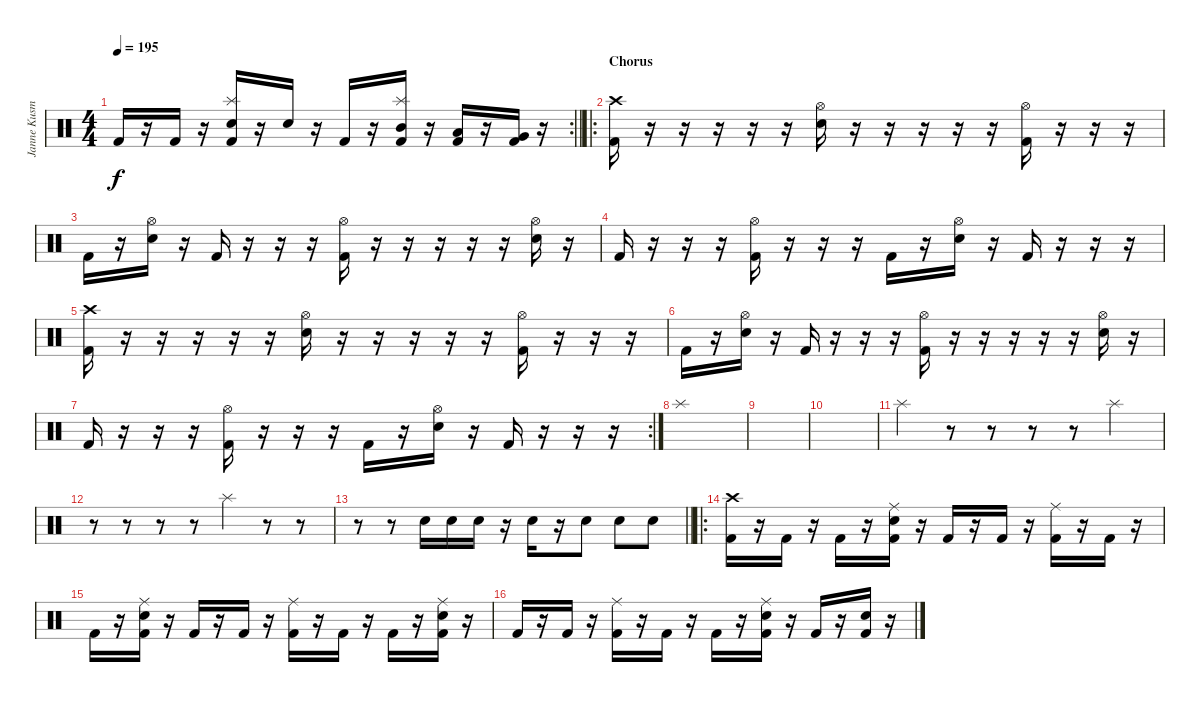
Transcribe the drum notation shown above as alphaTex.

\track ("Janne Kusmin" "Janne Kusm") {instrument percussion}
\staff {score}
\articulation defaults
\rc 2
\ts (4 4)
\tempo 195
\clef neutral
\barLineRight lightlight
\ks c "Kick (hit) 2".16{dy f}
r.16 "Kick (hit) 2".16 r.16 ("Splash (hit)" "Snare (hit) 2" "Kick (hit) 2").16 r.16 "Snare (hit) 2".16 r.16 "Kick (hit) 2".16 r.16 ("Splash (hit)" "Mid Tom (hit)" "Kick (hit) 2").16 r.16 ("Low Tom (hit)" "Kick (hit) 2").16 r.16 ("Very Low Tom (hit)" "Kick (hit) 2").16 r.16 |
\ro
\section ("" "Chorus")
("Crash high (hit)" "Kick (hit) 2").16 r.16 r.16 r.16 r.16 r.16 ("Hi-Hat (open)" "Snare (hit) 2").16 r.16 r.16 r.16 r.16 r.16 ("Hi-Hat (open)" "Kick (hit) 2").16 r.16 r.16 r.16 |
"Kick (hit) 2".16 r.16 ("Hi-Hat (open)" "Snare (hit) 2").16 r.16 "Kick (hit) 2".16 r.16 r.16 r.16 ("Hi-Hat (open)" "Kick (hit) 2").16 r.16 r.16 r.16 r.16 r.16 ("Hi-Hat (open)" "Snare (hit) 2").16 r.16 |
"Kick (hit) 2".16 r.16 r.16 r.16 ("Hi-Hat (open)" "Kick (hit) 2").16 r.16 r.16 r.16 "Kick (hit) 2".16 r.16 ("Hi-Hat (open)" "Snare (hit) 2").16 r.16 "Kick (hit) 2".16 r.16 r.16 r.16 |
("Crash high (hit)" "Kick (hit) 2").16 r.16 r.16 r.16 r.16 r.16 ("Hi-Hat (open)" "Snare (hit) 2").16 r.16 r.16 r.16 r.16 r.16 ("Hi-Hat (open)" "Kick (hit) 2").16 r.16 r.16 r.16 |
"Kick (hit) 2".16 r.16 ("Hi-Hat (open)" "Snare (hit) 2").16 r.16 "Kick (hit) 2".16 r.16 r.16 r.16 ("Hi-Hat (open)" "Kick (hit) 2").16 r.16 r.16 r.16 r.16 r.16 ("Hi-Hat (open)" "Snare (hit) 2").16 r.16 |
\rc 2 "Kick (hit) 2".16
r.16 r.16 r.16 ("Hi-Hat (open)" "Kick (hit) 2").16 r.16 r.16 r.16 "Kick (hit) 2".16 r.16 ("Hi-Hat (open)" "Snare (hit) 2").16 r.16 "Kick (hit) 2".16 r.16 r.16 r.16 |
"Splash (hit)".1 |
|
|
"Splash (hit)".4 r.8 r.8 r.8 r.8 "Splash (hit)".4 |
r.8 r.8 r.8 r.8 "Splash (hit)".4 r.8 r.8 |
\barLineRight lightlight
r.8 r.8 "Snare (hit) 2".16 "Snare (hit) 2".16 "Snare (hit) 2".16 r.16 "Snare (hit) 2".16 r.16 "Snare (hit) 2".8 "Snare (hit) 2".8 "Snare (hit) 2".8 |
\ro
("Crash high (hit)" "Kick (hit) 2").16 r.16 "Kick (hit) 2".16 r.16 "Kick (hit) 2".16 r.16 ("Ride (middle)" "Snare (hit) 2" "Kick (hit) 2").16 r.16 "Kick (hit) 2".16 r.16 "Kick (hit) 2".16 r.16 ("Ride (middle)" "Kick (hit) 2").16 r.16 "Kick (hit) 2".16 r.16 |
"Kick (hit) 2".16 r.16 ("Ride (middle)" "Snare (hit) 2" "Kick (hit) 2").16 r.16 "Kick (hit) 2".16 r.16 "Kick (hit) 2".16 r.16 ("Ride (middle)" "Kick (hit) 2").16 r.16 "Kick (hit) 2".16 r.16 "Kick (hit) 2".16 r.16 ("Ride (middle)" "Snare (hit) 2" "Kick (hit) 2").16 r.16 |
"Kick (hit) 2".16 r.16 "Kick (hit) 2".16 r.16 ("Ride (middle)" "Kick (hit) 2").16 r.16 "Kick (hit) 2".16 r.16 "Kick (hit) 2".16 r.16 ("Ride (middle)" "Snare (hit) 2" "Kick (hit) 2").16 r.16 "Kick (hit) 2".16 r.16 ("Snare (hit) 2" "Kick (hit) 2").16 r.16
